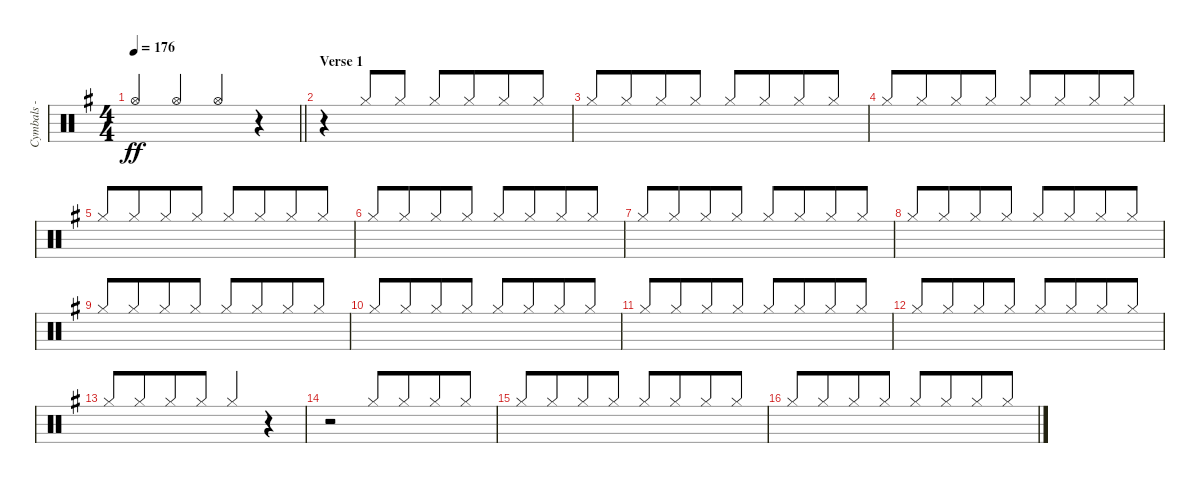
\track ("Cymbals - hi-hat" "Cymbals - ") {instrument percussion}
\staff {score}
\articulation defaults
\ts (4 4)
\tempo 176
\clef neutral
\barLineRight lightlight
\ks eminor "Hi-Hat (open)".4{dy ff beam Up} "Hi-Hat (open)".4{beam Up} "Hi-Hat (open)".4{beam Up}
r.4 |
\section ("" "Verse 1")
r.4 "Hi-Hat (closed)".8{beam Up} "Hi-Hat (closed)".8{beam Up} "Hi-Hat (closed)".8{beam Up} "Hi-Hat (closed)".8{beam Up beam merge} "Hi-Hat (closed)".8{beam Up} "Hi-Hat (closed)".8{beam Up} |
"Hi-Hat (closed)".8{beam Up} "Hi-Hat (closed)".8{beam Up beam merge} "Hi-Hat (closed)".8{beam Up} "Hi-Hat (closed)".8{beam Up} "Hi-Hat (closed)".8{beam Up} "Hi-Hat (closed)".8{beam Up beam merge} "Hi-Hat (closed)".8{beam Up} "Hi-Hat (closed)".8{beam Up} |
"Hi-Hat (closed)".8{beam Up} "Hi-Hat (closed)".8{beam Up beam merge} "Hi-Hat (closed)".8{beam Up} "Hi-Hat (closed)".8{beam Up} "Hi-Hat (closed)".8{beam Up} "Hi-Hat (closed)".8{beam Up beam merge} "Hi-Hat (closed)".8{beam Up} "Hi-Hat (closed)".8{beam Up} |
"Hi-Hat (closed)".8{beam Up} "Hi-Hat (closed)".8{beam Up beam merge} "Hi-Hat (closed)".8{beam Up} "Hi-Hat (closed)".8{beam Up} "Hi-Hat (closed)".8{beam Up} "Hi-Hat (closed)".8{beam Up beam merge} "Hi-Hat (closed)".8{beam Up} "Hi-Hat (closed)".8{beam Up} |
"Hi-Hat (closed)".8{beam Up} "Hi-Hat (closed)".8{beam Up beam merge} "Hi-Hat (closed)".8{beam Up} "Hi-Hat (closed)".8{beam Up} "Hi-Hat (closed)".8{beam Up} "Hi-Hat (closed)".8{beam Up beam merge} "Hi-Hat (closed)".8{beam Up} "Hi-Hat (closed)".8{beam Up} |
"Hi-Hat (closed)".8{beam Up} "Hi-Hat (closed)".8{beam Up beam merge} "Hi-Hat (closed)".8{beam Up} "Hi-Hat (closed)".8{beam Up} "Hi-Hat (closed)".8{beam Up} "Hi-Hat (closed)".8{beam Up beam merge} "Hi-Hat (closed)".8{beam Up} "Hi-Hat (closed)".8{beam Up} |
"Hi-Hat (closed)".8{beam Up} "Hi-Hat (closed)".8{beam Up beam merge} "Hi-Hat (closed)".8{beam Up} "Hi-Hat (closed)".8{beam Up} "Hi-Hat (closed)".8{beam Up} "Hi-Hat (closed)".8{beam Up beam merge} "Hi-Hat (closed)".8{beam Up} "Hi-Hat (closed)".8{beam Up} |
"Hi-Hat (closed)".8{beam Up} "Hi-Hat (closed)".8{beam Up beam merge} "Hi-Hat (closed)".8{beam Up} "Hi-Hat (closed)".8{beam Up} "Hi-Hat (closed)".8{beam Up} "Hi-Hat (closed)".8{beam Up beam merge} "Hi-Hat (closed)".8{beam Up} "Hi-Hat (closed)".8{beam Up} |
"Hi-Hat (closed)".8{beam Up} "Hi-Hat (closed)".8{beam Up beam merge} "Hi-Hat (closed)".8{beam Up} "Hi-Hat (closed)".8{beam Up} "Hi-Hat (closed)".8{beam Up} "Hi-Hat (closed)".8{beam Up beam merge} "Hi-Hat (closed)".8{beam Up} "Hi-Hat (closed)".8{beam Up} |
"Hi-Hat (closed)".8{beam Up} "Hi-Hat (closed)".8{beam Up beam merge} "Hi-Hat (closed)".8{beam Up} "Hi-Hat (closed)".8{beam Up} "Hi-Hat (closed)".8{beam Up} "Hi-Hat (closed)".8{beam Up beam merge} "Hi-Hat (closed)".8{beam Up} "Hi-Hat (closed)".8{beam Up} |
"Hi-Hat (closed)".8{beam Up} "Hi-Hat (closed)".8{beam Up beam merge} "Hi-Hat (closed)".8{beam Up} "Hi-Hat (closed)".8{beam Up} "Hi-Hat (closed)".8{beam Up} "Hi-Hat (closed)".8{beam Up beam merge} "Hi-Hat (closed)".8{beam Up} "Hi-Hat (closed)".8{beam Up} |
"Hi-Hat (closed)".8{beam Up} "Hi-Hat (closed)".8{beam Up beam merge} "Hi-Hat (closed)".8{beam Up} "Hi-Hat (closed)".8{beam Up} "Hi-Hat (closed)".4{beam Up} r.4 |
r.2 "Hi-Hat (closed)".8{beam Up} "Hi-Hat (closed)".8{beam Up beam merge} "Hi-Hat (closed)".8{beam Up} "Hi-Hat (closed)".8{beam Up} |
"Hi-Hat (closed)".8{beam Up} "Hi-Hat (closed)".8{beam Up beam merge} "Hi-Hat (closed)".8{beam Up} "Hi-Hat (closed)".8{beam Up} "Hi-Hat (closed)".8{beam Up} "Hi-Hat (closed)".8{beam Up beam merge} "Hi-Hat (closed)".8{beam Up} "Hi-Hat (closed)".8{beam Up} |
"Hi-Hat (closed)".8{beam Up} "Hi-Hat (closed)".8{beam Up beam merge} "Hi-Hat (closed)".8{beam Up} "Hi-Hat (closed)".8{beam Up} "Hi-Hat (closed)".8{beam Up} "Hi-Hat (closed)".8{beam Up beam merge} "Hi-Hat (closed)".8{beam Up} "Hi-Hat (closed)".8{beam Up}
